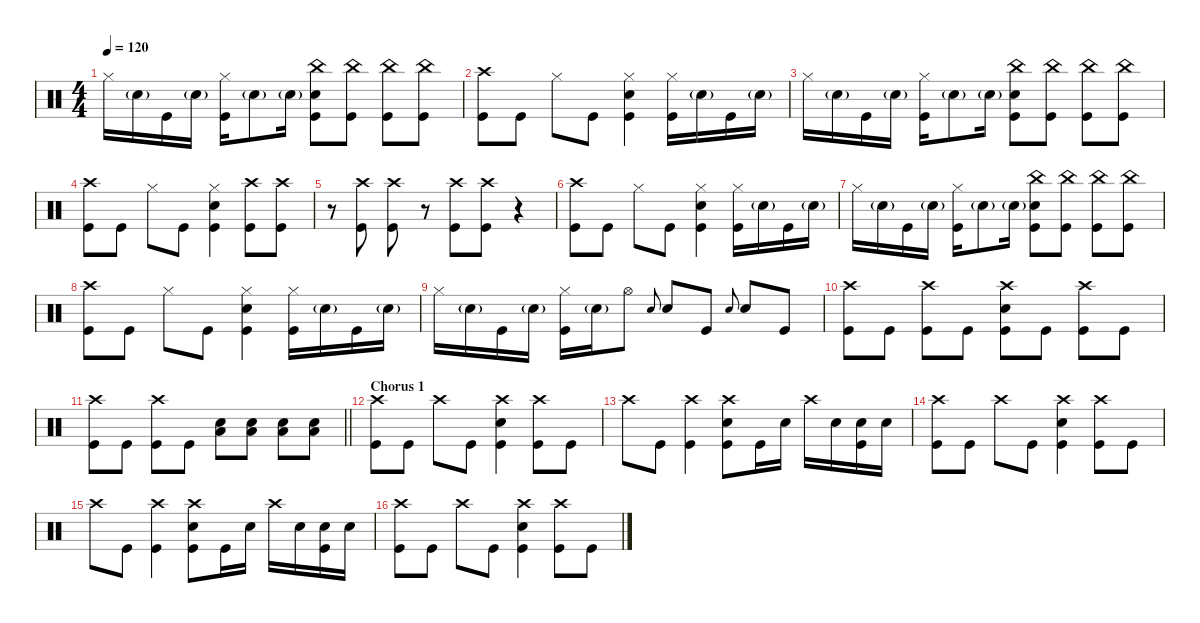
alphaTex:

\defaultSystemsLayout 4
\hideDynamics
\bracketExtendMode nobrackets
\singleTrackTrackNamePolicy hidden
\multiTrackTrackNamePolicy hidden
\firstSystemTrackNameMode fullname
\firstSystemTrackNameOrientation horizontal
\otherSystemsTrackNameOrientation horizontal
\track ("Drums" "drm.") {instrument percussion}
\staff {score}
\articulation defaults
\ts (4 4)
\tempo 120
\clef neutral
\ks c "Hi-Hat (closed)".16{dy mf beam Down} "Snare (hit) 2"{g}.16{dy mp beam Down} "Kick (hit)".16{dy mf beam Down} "Snare (hit) 2"{g}.16{dy mp beam Down}
("Kick (hit)" "Hi-Hat (closed)").16{dy mf beam Down} "Snare (hit) 2"{g}.8{dy mp beam Down} "Snare (hit) 2"{g}.16{beam Down} ("Snare (hit) 2" "China (hit)" "Kick (hit)").8{dy f beam Down} ("China (hit)" "Kick (hit)").8{dy mf beam Down} ("China (hit)" "Kick (hit)").8{beam Down} ("China (hit)" "Kick (hit)").8{beam Down} |
("Kick (hit)" "Crash high (hit)").8{beam Down} "Kick (hit)".8{beam Down} "Hi-Hat (closed)".8{beam Down} "Kick (hit)".8{beam Down} ("Kick (hit)" "Snare (hit) 2" "Hi-Hat (closed)").4{beam Down} ("Kick (hit)" "Hi-Hat (closed)").16{beam Down} "Snare (hit) 2"{g}.16{dy mp beam Down} "Kick (hit)".16{dy mf beam Down} "Snare (hit) 2"{g}.16{dy mp beam Down} |
"Hi-Hat (closed)".16{dy mf beam Down} "Snare (hit) 2"{g}.16{dy mp beam Down} "Kick (hit)".16{dy mf beam Down} "Snare (hit) 2"{g}.16{dy mp beam Down} ("Kick (hit)" "Hi-Hat (closed)").16{dy mf beam Down} "Snare (hit) 2"{g}.8{dy mp beam Down} "Snare (hit) 2"{g}.16{beam Down} ("Snare (hit) 2" "China (hit)" "Kick (hit)").8{dy f beam Down} ("China (hit)" "Kick (hit)").8{dy mf beam Down} ("China (hit)" "Kick (hit)").8{beam Down} ("China (hit)" "Kick (hit)").8{beam Down} |
("Kick (hit)" "Crash high (hit)").8{beam Down} "Kick (hit)".8{beam Down} "Hi-Hat (closed)".8{beam Down} "Kick (hit)".8{beam Down} ("Kick (hit)" "Snare (hit) 2" "Hi-Hat (closed)").4{beam Down} ("Kick (hit)" "Crash high (hit)").8{beam Down} ("Crash high (hit)" "Kick (hit)").8{beam Down} |
r.8{beam Down} ("Kick (hit)" "Crash high (hit)").8{beam Down} ("Crash high (hit)" "Kick (hit)").8{beam Down} r.8{beam Down} ("Crash high (hit)" "Kick (hit)").8{beam Down} ("Kick (hit)" "Crash high (hit)").8{beam Down} r.4{beam Down} |
("Kick (hit)" "Crash high (hit)").8{beam Down} "Kick (hit)".8{beam Down} "Hi-Hat (closed)".8{beam Down} "Kick (hit)".8{beam Down} ("Kick (hit)" "Snare (hit) 2" "Hi-Hat (closed)").4{beam Down} ("Kick (hit)" "Hi-Hat (closed)").16{beam Down} "Snare (hit) 2"{g}.16{dy mp beam Down} "Kick (hit)".16{dy mf beam Down} "Snare (hit) 2"{g}.16{dy mp beam Down} |
"Hi-Hat (closed)".16{dy mf beam Down} "Snare (hit) 2"{g}.16{dy mp beam Down} "Kick (hit)".16{dy mf beam Down} "Snare (hit) 2"{g}.16{dy mp beam Down} ("Kick (hit)" "Hi-Hat (closed)").16{dy mf beam Down} "Snare (hit) 2"{g}.8{dy mp beam Down} "Snare (hit) 2"{g}.16{beam Down} ("Snare (hit) 2" "China (hit)" "Kick (hit)").8{dy mf beam Down} ("China (hit)" "Kick (hit)").8{beam Down} ("China (hit)" "Kick (hit)").8{beam Down} ("China (hit)" "Kick (hit)").8{beam Down} |
("Crash high (hit)" "Kick (hit)").8{beam Down} "Kick (hit)".8{beam Down} "Hi-Hat (closed)".8{beam Down} "Kick (hit)".8{beam Down} ("Snare (hit) 2" "Hi-Hat (closed)" "Kick (hit)").4{beam Down} ("Hi-Hat (closed)" "Kick (hit)").16{beam Down} "Snare (hit) 2"{g}.16{dy mp beam Down} "Kick (hit)".16{dy mf beam Down} "Snare (hit) 2"{g}.16{dy mp beam Down} |
"Hi-Hat (closed)".16{dy mf beam Down} "Snare (hit) 2"{g}.16{dy mp beam Down} "Kick (hit)".16{dy mf beam Down} "Snare (hit) 2"{g}.16{dy mp beam Down} ("Hi-Hat (closed)" "Kick (hit)").16{dy mf beam Down} "Snare (hit) 2"{g}.16{dy mp beam Down} "Hi-Hat (open)".8{dy mf beam Down} "Snare (hit) 2".8{gr onbeat dy mp beam Up} "Snare (hit) 2".8{dy mf beam Up} "Kick (hit)".8{beam Up} "Snare (hit) 2".8{gr onbeat dy mp beam Up} "Snare (hit) 2".8{dy mf beam Up} "Kick (hit)".8{beam Up} |
("Crash high (hit)" "Kick (hit)").8{beam Down} "Kick (hit)".8{beam Down} ("Crash high (hit)" "Kick (hit)").8{beam Down} "Kick (hit)".8{beam Down} ("Snare (hit) 2" "Crash high (hit)" "Kick (hit)").8{beam Down} "Kick (hit)".8{beam Down} ("Crash high (hit)" "Kick (hit)").8{beam Down} "Kick (hit)".8{beam Down} |
\barLineRight lightlight
("Crash high (hit)" "Kick (hit)").8{beam Down} "Kick (hit)".8{beam Down} ("Crash high (hit)" "Kick (hit)").8{beam Down} "Kick (hit)".8{beam Down} ("Snare (hit) 2" "Low Floor Tom (hit)").8{beam Down} ("Snare (hit) 2" "Low Floor Tom (hit)").8{beam Down} ("Snare (hit) 2" "Low Floor Tom (hit)").8{beam Down} ("Snare (hit) 2" "Low Floor Tom (hit)").8{beam Down} |
\section ("" "Chorus 1")
("Kick (hit)" "Crash high (hit)").8{beam Down} "Kick (hit)".8{beam Down} "Crash high (hit)".8{beam Down} "Kick (hit)".8{beam Down} ("Kick (hit)" "Snare (hit) 2" "Crash high (hit)").4{beam Down} ("Kick (hit)" "Crash high (hit)").8{beam Down} "Kick (hit)".8{beam Down} |
"Crash high (hit)".8{beam Down} "Kick (hit)".8{beam Down} ("Kick (hit)" "Crash high (hit)").4{beam Down} ("Kick (hit)" "Snare (hit) 2" "Crash high (hit)").8{beam Down} "Kick (hit)".16{beam Down} "Snare (hit) 2".16{beam Down} "Crash high (hit)".16{beam Down} "Snare (hit) 2".16{beam Down} ("Snare (hit) 2" "Kick (hit)").16{beam Down} "Snare (hit) 2".16{beam Down} |
("Crash high (hit)" "Kick (hit)").8{beam Down} "Kick (hit)".8{beam Down} "Crash high (hit)".8{beam Down} "Kick (hit)".8{beam Down} ("Snare (hit) 2" "Crash high (hit)" "Kick (hit)").4{beam Down} ("Crash high (hit)" "Kick (hit)").8{beam Down} "Kick (hit)".8{beam Down} |
"Crash high (hit)".8{beam Down} "Kick (hit)".8{beam Down} ("Kick (hit)" "Crash high (hit)").4{beam Down} ("Kick (hit)" "Snare (hit) 2" "Crash high (hit)").8{beam Down} "Kick (hit)".16{beam Down} "Snare (hit) 2".16{beam Down} "Crash high (hit)".16{beam Down} "Snare (hit) 2".16{beam Down} ("Kick (hit)" "Snare (hit) 2").16{beam Down} "Snare (hit) 2".16{beam Down} |
("Crash high (hit)" "Kick (hit)").8{beam Down} "Kick (hit)".8{beam Down} "Crash high (hit)".8{beam Down} "Kick (hit)".8{beam Down} ("Snare (hit) 2" "Crash high (hit)" "Kick (hit)").4{beam Down} ("Crash high (hit)" "Kick (hit)").8{beam Down} "Kick (hit)".8{beam Down}
